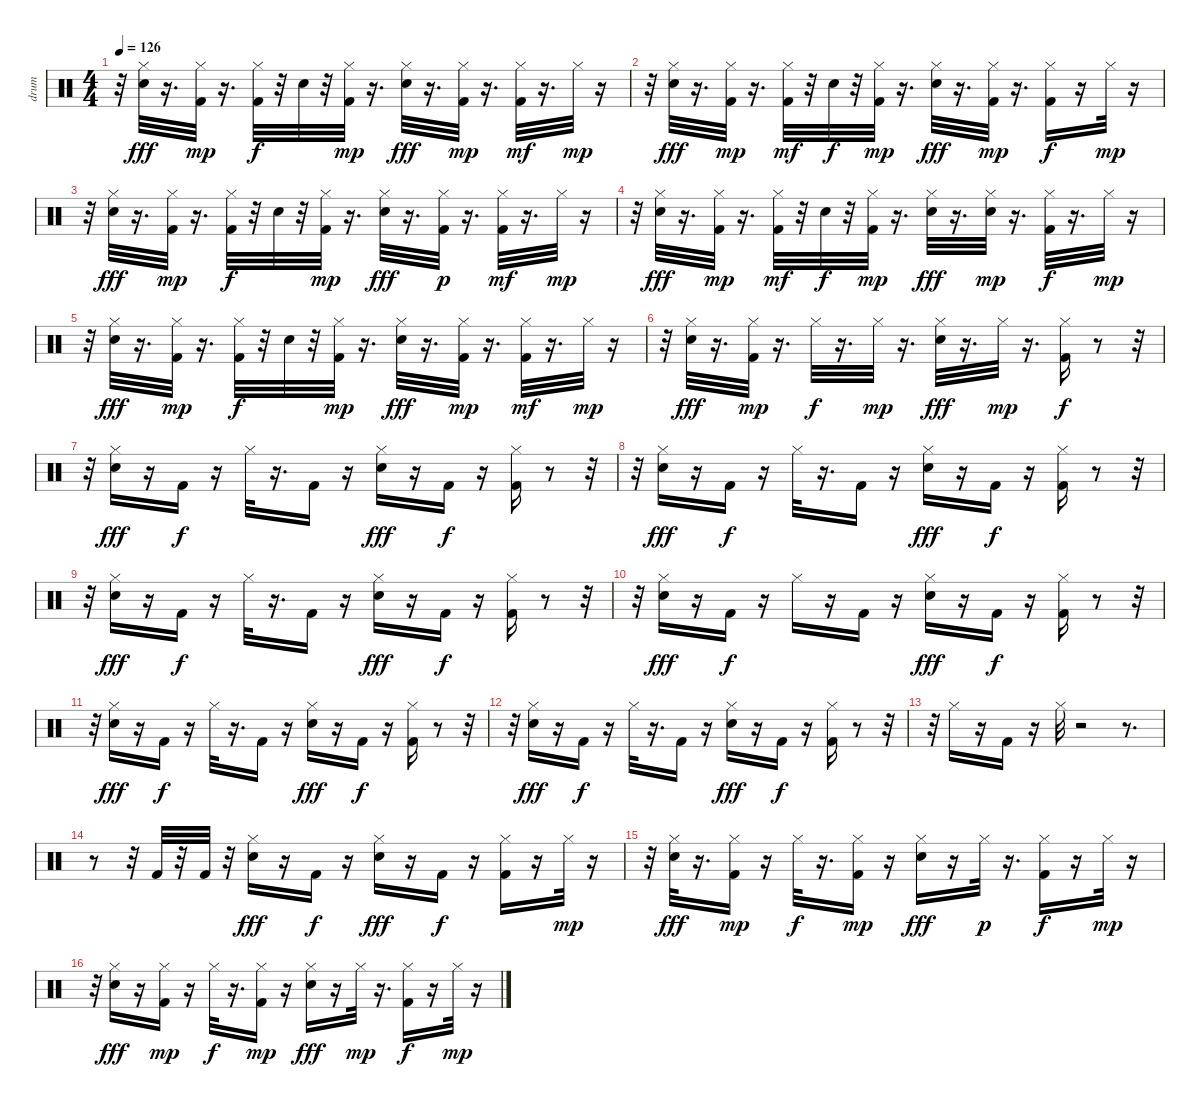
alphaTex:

\track ("drum" "drum") {instrument percussion}
\staff {score}
\articulation defaults
\ts (4 4)
\tempo 126
\clef neutral
\ks c
r.32{dy mp} ("Electric Snare (hit)" "Hi-Hat (closed)").32{dy fff} r.16{d} ("Kick (hit) 2" "Hi-Hat (closed)").32{dy mp} r.16{d} ("Kick (hit) 2" "Hi-Hat (closed)").32{dy f} r.32 "Electric Snare (hit)".32 r.32 ("Kick (hit) 2" "Hi-Hat (closed)").32{dy mp} r.16{d} ("Electric Snare (hit)" "Hi-Hat (closed)").32{dy fff} r.16{d} ("Kick (hit) 2" "Hi-Hat (closed)").32{dy mp} r.16{d} ("Kick (hit) 2" "Hi-Hat (closed)").32{dy mf} r.16{d} "Hi-Hat (closed)".32{dy mp} r.16 |
r.32 ("Electric Snare (hit)" "Hi-Hat (closed)").32{dy fff} r.16{d} ("Kick (hit) 2" "Hi-Hat (closed)").32{dy mp} r.16{d} ("Kick (hit) 2" "Hi-Hat (closed)").32{dy mf} r.32 "Electric Snare (hit)".32{dy f} r.32 ("Kick (hit) 2" "Hi-Hat (closed)").32{dy mp} r.16{d} ("Electric Snare (hit)" "Hi-Hat (closed)").32{dy fff} r.16{d} ("Kick (hit) 2" "Hi-Hat (closed)").32{dy mp} r.16{d} ("Kick (hit) 2" "Hi-Hat (closed)").16{dy f} r.16 "Hi-Hat (closed)".32{dy mp} r.16 |
r.32 ("Electric Snare (hit)" "Hi-Hat (closed)").32{dy fff} r.16{d} ("Kick (hit) 2" "Hi-Hat (closed)").32{dy mp} r.16{d} ("Kick (hit) 2" "Hi-Hat (closed)").32{dy f} r.32 "Electric Snare (hit)".32 r.32 ("Kick (hit) 2" "Hi-Hat (closed)").32{dy mp} r.16{d} ("Electric Snare (hit)" "Hi-Hat (closed)").32{dy fff} r.16{d} ("Kick (hit) 2" "Hi-Hat (closed)").32{dy p} r.16{d} ("Kick (hit) 2" "Hi-Hat (closed)").32{dy mf} r.16{d} "Hi-Hat (closed)".32{dy mp} r.16 |
r.32 ("Electric Snare (hit)" "Hi-Hat (closed)").32{dy fff} r.16{d} ("Kick (hit) 2" "Hi-Hat (closed)").32{dy mp} r.16{d} ("Kick (hit) 2" "Hi-Hat (closed)").32{dy mf} r.32 "Electric Snare (hit)".32{dy f} r.32 ("Kick (hit) 2" "Hi-Hat (closed)").32{dy mp} r.16{d} ("Electric Snare (hit)" "Hi-Hat (closed)").32{dy fff} r.16{d} ("Electric Snare (hit)" "Hi-Hat (closed)").32{dy mp} r.16{d} ("Kick (hit) 2" "Hi-Hat (closed)").32{dy f} r.16{d} "Hi-Hat (closed)".32{dy mp} r.16 |
r.32 ("Electric Snare (hit)" "Hi-Hat (closed)").32{dy fff} r.16{d} ("Kick (hit) 2" "Hi-Hat (closed)").32{dy mp} r.16{d} ("Kick (hit) 2" "Hi-Hat (closed)").32{dy f} r.32 "Electric Snare (hit)".32 r.32 ("Kick (hit) 2" "Hi-Hat (closed)").32{dy mp} r.16{d} ("Electric Snare (hit)" "Hi-Hat (closed)").32{dy fff} r.16{d} ("Kick (hit) 2" "Hi-Hat (closed)").32{dy mp} r.16{d} ("Kick (hit) 2" "Hi-Hat (closed)").32{dy mf} r.16{d} "Hi-Hat (closed)".32{dy mp} r.16 |
r.32 ("Electric Snare (hit)" "Hi-Hat (closed)").32{dy fff} r.16{d} ("Kick (hit) 2" "Hi-Hat (closed)").32{dy mp} r.16{d} "Hi-Hat (closed)".32{dy f} r.16{d} "Hi-Hat (closed)".32{dy mp} r.16{d} ("Electric Snare (hit)" "Hi-Hat (closed)").32{dy fff} r.16{d} "Hi-Hat (closed)".32{dy mp} r.16{d} ("Kick (hit) 2" "Hi-Hat (closed)").16{dy f} r.8 r.32 |
r.32 ("Electric Snare (hit)" "Hi-Hat (closed)").16{dy fff} r.16 "Kick (hit) 2".16{dy f} r.16 "Hi-Hat (closed)".32 r.16{d} "Kick (hit) 2".16 r.16 ("Electric Snare (hit)" "Hi-Hat (closed)").16{dy fff} r.16 "Kick (hit) 2".16{dy f} r.16 ("Kick (hit) 2" "Hi-Hat (closed)").16 r.8 r.32 |
r.32 ("Electric Snare (hit)" "Hi-Hat (closed)").16{dy fff} r.16 "Kick (hit) 2".16{dy f} r.16 "Hi-Hat (closed)".32 r.16{d} "Kick (hit) 2".16 r.16 ("Electric Snare (hit)" "Hi-Hat (closed)").16{dy fff} r.16 "Kick (hit) 2".16{dy f} r.16 ("Kick (hit) 2" "Hi-Hat (closed)").16 r.8 r.32 |
r.32 ("Electric Snare (hit)" "Hi-Hat (closed)").16{dy fff} r.16 "Kick (hit) 2".16{dy f} r.16 "Hi-Hat (closed)".32 r.16{d} "Kick (hit) 2".16 r.16 ("Electric Snare (hit)" "Hi-Hat (closed)").16{dy fff} r.16 "Kick (hit) 2".16{dy f} r.16 ("Kick (hit) 2" "Hi-Hat (closed)").16 r.8 r.32 |
r.32 ("Electric Snare (hit)" "Hi-Hat (closed)").16{dy fff} r.16 "Kick (hit) 2".16{dy f} r.16 "Hi-Hat (closed)".16 r.16 "Kick (hit) 2".16 r.16 ("Electric Snare (hit)" "Hi-Hat (closed)").16{dy fff} r.16 "Kick (hit) 2".16{dy f} r.16 ("Kick (hit) 2" "Hi-Hat (closed)").16 r.8 r.32 |
r.32 ("Electric Snare (hit)" "Hi-Hat (closed)").16{dy fff} r.16 "Kick (hit) 2".16{dy f} r.16 "Hi-Hat (closed)".32 r.16{d} "Kick (hit) 2".16 r.16 ("Electric Snare (hit)" "Hi-Hat (closed)").16{dy fff} r.16 "Kick (hit) 2".16{dy f} r.16 ("Kick (hit) 2" "Hi-Hat (closed)").16 r.8 r.32 |
r.32 ("Electric Snare (hit)" "Hi-Hat (closed)").16{dy fff} r.16 "Kick (hit) 2".16{dy f} r.16 "Hi-Hat (closed)".32 r.16{d} "Kick (hit) 2".16 r.16 ("Electric Snare (hit)" "Hi-Hat (closed)").16{dy fff} r.16 "Kick (hit) 2".16{dy f} r.16 ("Kick (hit) 2" "Hi-Hat (closed)").16 r.8 r.32 |
r.32 "Hi-Hat (closed)".16 r.16 "Kick (hit) 2".16 r.16 "Hi-Hat (closed)".32 r.2 r.8{d} |
r.8 r.32 "Kick (hit) 2".32 r.32 "Kick (hit) 2".32 r.32 ("Hi-Hat (closed)" "Electric Snare (hit)").16{dy fff} r.16 "Kick (hit) 2".16{dy f} r.16 ("Electric Snare (hit)" "Hi-Hat (closed)").16{dy fff} r.16 "Kick (hit) 2".16{dy f} r.16 ("Kick (hit) 2" "Hi-Hat (closed)").16 r.16 "Hi-Hat (closed)".32{dy mp} r.16 |
r.32 ("Electric Snare (hit)" "Hi-Hat (closed)").32{dy fff} r.16{d} ("Kick (hit) 2" "Hi-Hat (closed)").16{dy mp} r.16 "Hi-Hat (closed)".32{dy f} r.16{d} ("Kick (hit) 2" "Hi-Hat (closed)").16{dy mp} r.16 ("Electric Snare (hit)" "Hi-Hat (closed)").16{dy fff} r.16 "Hi-Hat (closed)".32{dy p} r.16{d} ("Kick (hit) 2" "Hi-Hat (closed)").16{dy f} r.16 "Hi-Hat (closed)".32{dy mp} r.16 |
r.32 ("Electric Snare (hit)" "Hi-Hat (closed)").16{dy fff} r.16 ("Kick (hit) 2" "Hi-Hat (closed)").16{dy mp} r.16 "Hi-Hat (closed)".32{dy f} r.16{d} ("Kick (hit) 2" "Hi-Hat (closed)").16{dy mp} r.16 ("Electric Snare (hit)" "Hi-Hat (closed)").16{dy fff} r.16 "Hi-Hat (closed)".32{dy mp} r.16{d} ("Kick (hit) 2" "Hi-Hat (closed)").16{dy f} r.16 "Hi-Hat (closed)".32{dy mp} r.16
